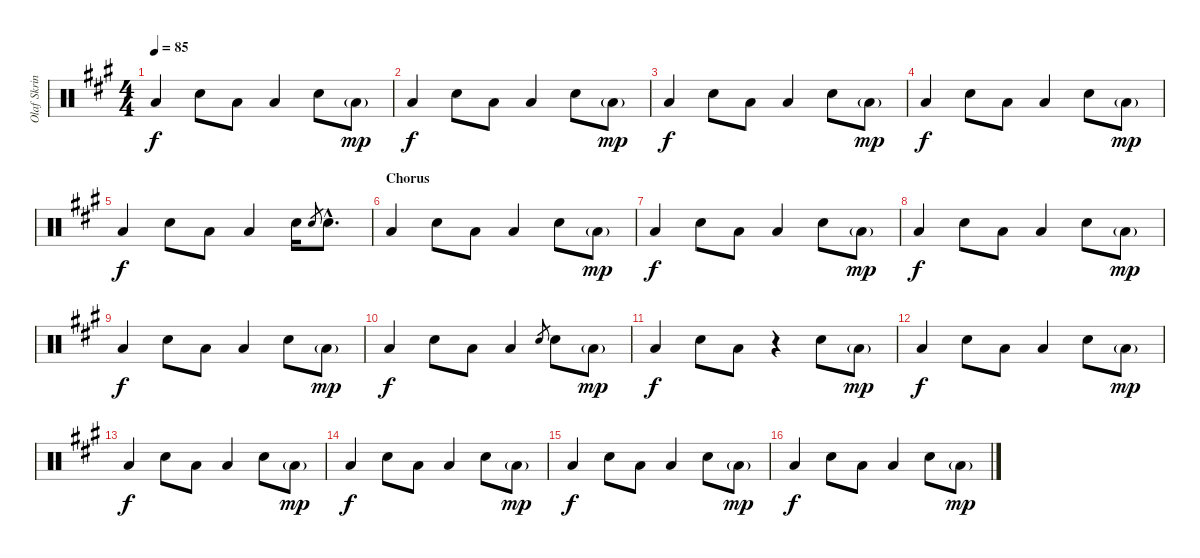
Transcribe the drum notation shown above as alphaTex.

\track ("Olaf Skrinde (Drums)" "Olaf Skrin") {instrument percussion}
\staff {score}
\articulation defaults
\ts (4 4)
\tempo 85
\clef neutral
\ks a "Low Floor Tom (hit)".4{dy f} "Snare (hit) 2".8 "Low Floor Tom (hit)".8 "Low Floor Tom (hit)".4 "Snare (hit) 2".8 "Low Floor Tom (hit)"{g}.8{dy mp}
|
"Low Floor Tom (hit)".4{dy f} "Snare (hit) 2".8 "Low Floor Tom (hit)".8 "Low Floor Tom (hit)".4 "Snare (hit) 2".8 "Low Floor Tom (hit)"{g}.8{dy mp} |
"Low Floor Tom (hit)".4{dy f} "Snare (hit) 2".8 "Low Floor Tom (hit)".8 "Low Floor Tom (hit)".4 "Snare (hit) 2".8 "Low Floor Tom (hit)"{g}.8{dy mp} |
"Low Floor Tom (hit)".4{dy f} "Snare (hit) 2".8 "Low Floor Tom (hit)".8 "Low Floor Tom (hit)".4 "Snare (hit) 2".8 "Low Floor Tom (hit)"{g}.8{dy mp} |
"Low Floor Tom (hit)".4{dy f} "Snare (hit) 2".8 "Low Floor Tom (hit)".8 "Low Floor Tom (hit)".4 "Snare (hit) 2".16 "Snare (hit) 2".8{gr} "Snare (hit) 2"{hac}.8{d} |
\section ("" "Chorus")
"Low Floor Tom (hit)".4 "Snare (hit) 2".8 "Low Floor Tom (hit)".8 "Low Floor Tom (hit)".4 "Snare (hit) 2".8 "Low Floor Tom (hit)"{g}.8{dy mp} |
"Low Floor Tom (hit)".4{dy f} "Snare (hit) 2".8 "Low Floor Tom (hit)".8 "Low Floor Tom (hit)".4 "Snare (hit) 2".8 "Low Floor Tom (hit)"{g}.8{dy mp} |
"Low Floor Tom (hit)".4{dy f} "Snare (hit) 2".8 "Low Floor Tom (hit)".8 "Low Floor Tom (hit)".4 "Snare (hit) 2".8 "Low Floor Tom (hit)"{g}.8{dy mp} |
"Low Floor Tom (hit)".4{dy f} "Snare (hit) 2".8 "Low Floor Tom (hit)".8 "Low Floor Tom (hit)".4 "Snare (hit) 2".8 "Low Floor Tom (hit)"{g}.8{dy mp} |
"Low Floor Tom (hit)".4{dy f} "Snare (hit) 2".8 "Low Floor Tom (hit)".8 "Low Floor Tom (hit)".4 "Snare (hit) 2".8{gr} "Snare (hit) 2".8 "Low Floor Tom (hit)"{g}.8{dy mp} |
"Low Floor Tom (hit)".4{dy f} "Snare (hit) 2".8 "Low Floor Tom (hit)".8 r.4 "Snare (hit) 2".8 "Low Floor Tom (hit)"{g}.8{dy mp} |
"Low Floor Tom (hit)".4{dy f} "Snare (hit) 2".8 "Low Floor Tom (hit)".8 "Low Floor Tom (hit)".4 "Snare (hit) 2".8 "Low Floor Tom (hit)"{g}.8{dy mp} |
"Low Floor Tom (hit)".4{dy f} "Snare (hit) 2".8 "Low Floor Tom (hit)".8 "Low Floor Tom (hit)".4 "Snare (hit) 2".8 "Low Floor Tom (hit)"{g}.8{dy mp} |
"Low Floor Tom (hit)".4{dy f} "Snare (hit) 2".8 "Low Floor Tom (hit)".8 "Low Floor Tom (hit)".4 "Snare (hit) 2".8 "Low Floor Tom (hit)"{g}.8{dy mp} |
"Low Floor Tom (hit)".4{dy f} "Snare (hit) 2".8 "Low Floor Tom (hit)".8 "Low Floor Tom (hit)".4 "Snare (hit) 2".8 "Low Floor Tom (hit)"{g}.8{dy mp} |
"Low Floor Tom (hit)".4{dy f} "Snare (hit) 2".8 "Low Floor Tom (hit)".8 "Low Floor Tom (hit)".4 "Snare (hit) 2".8 "Low Floor Tom (hit)"{g}.8{dy mp}
